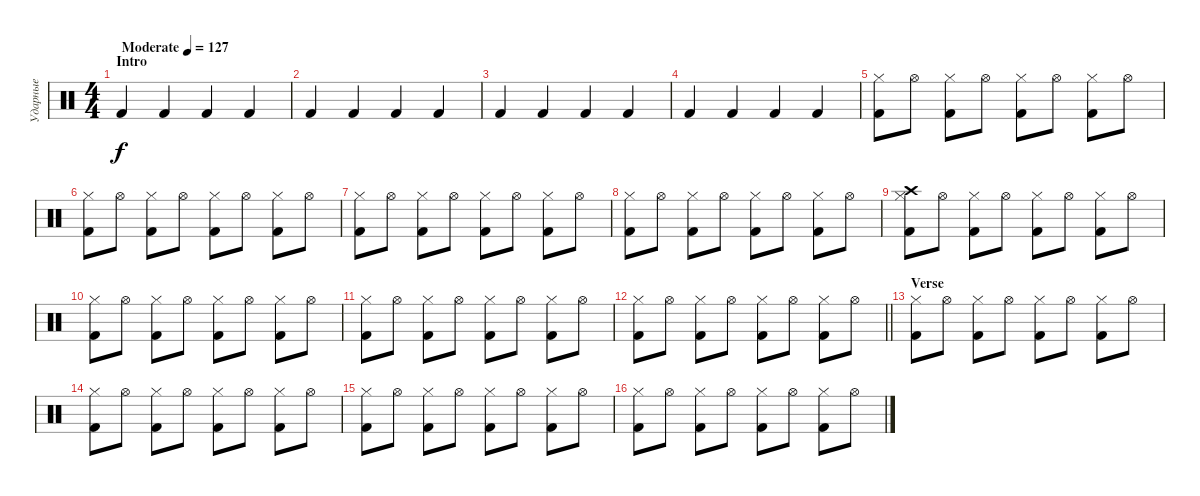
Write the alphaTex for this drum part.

\track ("Ударные" "Ударные") {instrument percussion}
\staff {score}
\articulation defaults
\ts (4 4)
\section ("" "Intro")
\tempo (127 "Moderate")
\clef neutral
\ks c "Kick (hit) 2".4{dy f} "Kick (hit) 2".4 "Kick (hit) 2".4 "Kick (hit) 2".4
|
"Kick (hit) 2".4 "Kick (hit) 2".4 "Kick (hit) 2".4 "Kick (hit) 2".4 |
"Kick (hit) 2".4 "Kick (hit) 2".4 "Kick (hit) 2".4 "Kick (hit) 2".4 |
"Kick (hit) 2".4 "Kick (hit) 2".4 "Kick (hit) 2".4 "Kick (hit) 2".4 |
("Hi-Hat (closed)" "Kick (hit) 2").8 "Hi-Hat (open)".8 ("Hi-Hat (closed)" "Kick (hit) 2").8 "Hi-Hat (open)".8 ("Hi-Hat (closed)" "Kick (hit) 2").8 "Hi-Hat (open)".8 ("Hi-Hat (closed)" "Kick (hit) 2").8 "Hi-Hat (open)".8 |
("Hi-Hat (closed)" "Kick (hit) 2").8 "Hi-Hat (open)".8 ("Hi-Hat (closed)" "Kick (hit) 2").8 "Hi-Hat (open)".8 ("Hi-Hat (closed)" "Kick (hit) 2").8 "Hi-Hat (open)".8 ("Hi-Hat (closed)" "Kick (hit) 2").8 "Hi-Hat (open)".8 |
("Hi-Hat (closed)" "Kick (hit) 2").8 "Hi-Hat (open)".8 ("Hi-Hat (closed)" "Kick (hit) 2").8 "Hi-Hat (open)".8 ("Hi-Hat (closed)" "Kick (hit) 2").8 "Hi-Hat (open)".8 ("Hi-Hat (closed)" "Kick (hit) 2").8 "Hi-Hat (open)".8 |
("Hi-Hat (closed)" "Kick (hit) 2").8 "Hi-Hat (open)".8 ("Hi-Hat (closed)" "Kick (hit) 2").8 "Hi-Hat (open)".8 ("Hi-Hat (closed)" "Kick (hit) 2").8 "Hi-Hat (open)".8 ("Hi-Hat (closed)" "Kick (hit) 2").8 "Hi-Hat (open)".8 |
("Crash high (hit)" "Hi-Hat (closed)" "Kick (hit) 2").8 "Hi-Hat (open)".8 ("Hi-Hat (closed)" "Kick (hit) 2").8 "Hi-Hat (open)".8 ("Hi-Hat (closed)" "Kick (hit) 2").8 "Hi-Hat (open)".8 ("Hi-Hat (closed)" "Kick (hit) 2").8 "Hi-Hat (open)".8 |
("Hi-Hat (closed)" "Kick (hit) 2").8 "Hi-Hat (open)".8 ("Hi-Hat (closed)" "Kick (hit) 2").8 "Hi-Hat (open)".8 ("Hi-Hat (closed)" "Kick (hit) 2").8 "Hi-Hat (open)".8 ("Hi-Hat (closed)" "Kick (hit) 2").8 "Hi-Hat (open)".8 |
("Hi-Hat (closed)" "Kick (hit) 2").8 "Hi-Hat (open)".8 ("Hi-Hat (closed)" "Kick (hit) 2").8 "Hi-Hat (open)".8 ("Hi-Hat (closed)" "Kick (hit) 2").8 "Hi-Hat (open)".8 ("Hi-Hat (closed)" "Kick (hit) 2").8 "Hi-Hat (open)".8 |
\barLineRight lightlight
("Hi-Hat (closed)" "Kick (hit) 2").8 "Hi-Hat (open)".8 ("Hi-Hat (closed)" "Kick (hit) 2").8 "Hi-Hat (open)".8 ("Hi-Hat (closed)" "Kick (hit) 2").8 "Hi-Hat (open)".8 ("Hi-Hat (closed)" "Kick (hit) 2").8 "Hi-Hat (open)".8 |
\section ("" "Verse")
("Hi-Hat (closed)" "Kick (hit) 2").8 "Hi-Hat (open)".8 ("Hi-Hat (closed)" "Kick (hit) 2").8 "Hi-Hat (open)".8 ("Hi-Hat (closed)" "Kick (hit) 2").8 "Hi-Hat (open)".8 ("Hi-Hat (closed)" "Kick (hit) 2").8 "Hi-Hat (open)".8 |
("Hi-Hat (closed)" "Kick (hit) 2").8 "Hi-Hat (open)".8 ("Hi-Hat (closed)" "Kick (hit) 2").8 "Hi-Hat (open)".8 ("Hi-Hat (closed)" "Kick (hit) 2").8 "Hi-Hat (open)".8 ("Hi-Hat (closed)" "Kick (hit) 2").8 "Hi-Hat (open)".8 |
("Hi-Hat (closed)" "Kick (hit) 2").8 "Hi-Hat (open)".8 ("Hi-Hat (closed)" "Kick (hit) 2").8 "Hi-Hat (open)".8 ("Hi-Hat (closed)" "Kick (hit) 2").8 "Hi-Hat (open)".8 ("Hi-Hat (closed)" "Kick (hit) 2").8 "Hi-Hat (open)".8 |
("Hi-Hat (closed)" "Kick (hit) 2").8 "Hi-Hat (open)".8 ("Hi-Hat (closed)" "Kick (hit) 2").8 "Hi-Hat (open)".8 ("Hi-Hat (closed)" "Kick (hit) 2").8 "Hi-Hat (open)".8 ("Hi-Hat (closed)" "Kick (hit) 2").8 "Hi-Hat (open)".8
